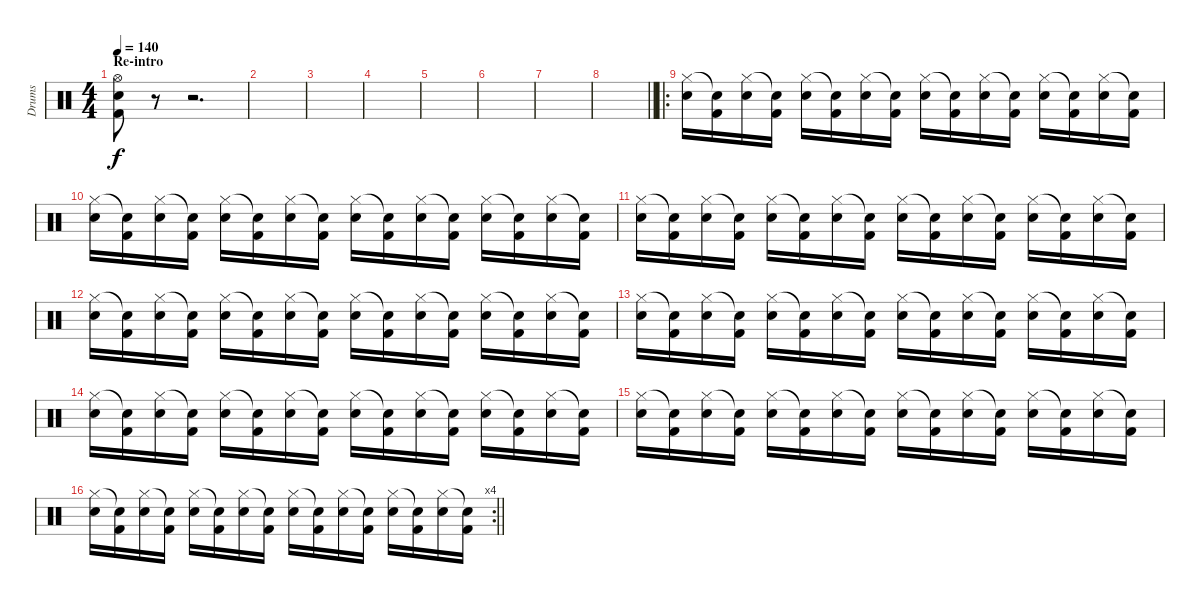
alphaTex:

\track ("Drums" "Drums") {instrument percussion}
\staff {score}
\articulation defaults
\ts (4 4)
\section ("" "Re-intro")
\tempo 140
\clef neutral
\ks c
("Hi-Hat (open)" "Snare (hit) 2" "Kick (hit) 2").8{dy f} r.8 r.2{d} |
|
|
|
|
|
|
\barLineRight lightlight
|
\ro
("Snare (hit) 2" "Hi-Hat (closed)").16 ("Kick (hit) 2" "Snare (hit)"{t}).16 ("Snare (hit) 2" "Hi-Hat (closed)").16 ("Kick (hit) 2" "Snare (hit)"{t}).16 ("Snare (hit) 2" "Hi-Hat (closed)").16 ("Kick (hit) 2" "Snare (hit)"{t}).16 ("Snare (hit) 2" "Hi-Hat (closed)").16 ("Kick (hit) 2" "Snare (hit)"{t}).16 ("Snare (hit) 2" "Hi-Hat (closed)").16 ("Kick (hit) 2" "Snare (hit)"{t}).16 ("Snare (hit) 2" "Hi-Hat (closed)").16 ("Kick (hit) 2" "Snare (hit)"{t}).16 ("Snare (hit) 2" "Hi-Hat (closed)").16 ("Kick (hit) 2" "Snare (hit)"{t}).16 ("Snare (hit) 2" "Hi-Hat (closed)").16 ("Kick (hit) 2" "Snare (hit)"{t}).16 |
("Snare (hit) 2" "Hi-Hat (closed)").16 ("Kick (hit) 2" "Snare (hit)"{t}).16 ("Snare (hit) 2" "Hi-Hat (closed)").16 ("Kick (hit) 2" "Snare (hit)"{t}).16 ("Snare (hit) 2" "Hi-Hat (closed)").16 ("Kick (hit) 2" "Snare (hit)"{t}).16 ("Snare (hit) 2" "Hi-Hat (closed)").16 ("Kick (hit) 2" "Snare (hit)"{t}).16 ("Snare (hit) 2" "Hi-Hat (closed)").16 ("Kick (hit) 2" "Snare (hit)"{t}).16 ("Snare (hit) 2" "Hi-Hat (closed)").16 ("Kick (hit) 2" "Snare (hit)"{t}).16 ("Snare (hit) 2" "Hi-Hat (closed)").16 ("Kick (hit) 2" "Snare (hit)"{t}).16 ("Snare (hit) 2" "Hi-Hat (closed)").16 ("Kick (hit) 2" "Snare (hit)"{t}).16 |
("Snare (hit) 2" "Hi-Hat (closed)").16 ("Kick (hit) 2" "Snare (hit)"{t}).16 ("Snare (hit) 2" "Hi-Hat (closed)").16 ("Kick (hit) 2" "Snare (hit)"{t}).16 ("Snare (hit) 2" "Hi-Hat (closed)").16 ("Kick (hit) 2" "Snare (hit)"{t}).16 ("Snare (hit) 2" "Hi-Hat (closed)").16 ("Kick (hit) 2" "Snare (hit)"{t}).16 ("Snare (hit) 2" "Hi-Hat (closed)").16 ("Kick (hit) 2" "Snare (hit)"{t}).16 ("Snare (hit) 2" "Hi-Hat (closed)").16 ("Kick (hit) 2" "Snare (hit)"{t}).16 ("Snare (hit) 2" "Hi-Hat (closed)").16 ("Kick (hit) 2" "Snare (hit)"{t}).16 ("Snare (hit) 2" "Hi-Hat (closed)").16 ("Kick (hit) 2" "Snare (hit)"{t}).16 |
("Snare (hit) 2" "Hi-Hat (closed)").16 ("Kick (hit) 2" "Snare (hit)"{t}).16 ("Snare (hit) 2" "Hi-Hat (closed)").16 ("Kick (hit) 2" "Snare (hit)"{t}).16 ("Snare (hit) 2" "Hi-Hat (closed)").16 ("Kick (hit) 2" "Snare (hit)"{t}).16 ("Snare (hit) 2" "Hi-Hat (closed)").16 ("Kick (hit) 2" "Snare (hit)"{t}).16 ("Snare (hit) 2" "Hi-Hat (closed)").16 ("Kick (hit) 2" "Snare (hit)"{t}).16 ("Snare (hit) 2" "Hi-Hat (closed)").16 ("Kick (hit) 2" "Snare (hit)"{t}).16 ("Snare (hit) 2" "Hi-Hat (closed)").16 ("Kick (hit) 2" "Snare (hit)"{t}).16 ("Snare (hit) 2" "Hi-Hat (closed)").16 ("Kick (hit) 2" "Snare (hit)"{t}).16 |
("Snare (hit) 2" "Hi-Hat (closed)").16 ("Kick (hit) 2" "Snare (hit)"{t}).16 ("Snare (hit) 2" "Hi-Hat (closed)").16 ("Kick (hit) 2" "Snare (hit)"{t}).16 ("Snare (hit) 2" "Hi-Hat (closed)").16 ("Kick (hit) 2" "Snare (hit)"{t}).16 ("Snare (hit) 2" "Hi-Hat (closed)").16 ("Kick (hit) 2" "Snare (hit)"{t}).16 ("Snare (hit) 2" "Hi-Hat (closed)").16 ("Kick (hit) 2" "Snare (hit)"{t}).16 ("Snare (hit) 2" "Hi-Hat (closed)").16 ("Kick (hit) 2" "Snare (hit)"{t}).16 ("Snare (hit) 2" "Hi-Hat (closed)").16 ("Kick (hit) 2" "Snare (hit)"{t}).16 ("Snare (hit) 2" "Hi-Hat (closed)").16 ("Kick (hit) 2" "Snare (hit)"{t}).16 |
("Snare (hit) 2" "Hi-Hat (closed)").16 ("Kick (hit) 2" "Snare (hit)"{t}).16 ("Snare (hit) 2" "Hi-Hat (closed)").16 ("Kick (hit) 2" "Snare (hit)"{t}).16 ("Snare (hit) 2" "Hi-Hat (closed)").16 ("Kick (hit) 2" "Snare (hit)"{t}).16 ("Snare (hit) 2" "Hi-Hat (closed)").16 ("Kick (hit) 2" "Snare (hit)"{t}).16 ("Snare (hit) 2" "Hi-Hat (closed)").16 ("Kick (hit) 2" "Snare (hit)"{t}).16 ("Snare (hit) 2" "Hi-Hat (closed)").16 ("Kick (hit) 2" "Snare (hit)"{t}).16 ("Snare (hit) 2" "Hi-Hat (closed)").16 ("Kick (hit) 2" "Snare (hit)"{t}).16 ("Snare (hit) 2" "Hi-Hat (closed)").16 ("Kick (hit) 2" "Snare (hit)"{t}).16 |
("Snare (hit) 2" "Hi-Hat (closed)").16 ("Kick (hit) 2" "Snare (hit)"{t}).16 ("Snare (hit) 2" "Hi-Hat (closed)").16 ("Kick (hit) 2" "Snare (hit)"{t}).16 ("Snare (hit) 2" "Hi-Hat (closed)").16 ("Kick (hit) 2" "Snare (hit)"{t}).16 ("Snare (hit) 2" "Hi-Hat (closed)").16 ("Kick (hit) 2" "Snare (hit)"{t}).16 ("Snare (hit) 2" "Hi-Hat (closed)").16 ("Kick (hit) 2" "Snare (hit)"{t}).16 ("Snare (hit) 2" "Hi-Hat (closed)").16 ("Kick (hit) 2" "Snare (hit)"{t}).16 ("Snare (hit) 2" "Hi-Hat (closed)").16 ("Kick (hit) 2" "Snare (hit)"{t}).16 ("Snare (hit) 2" "Hi-Hat (closed)").16 ("Kick (hit) 2" "Snare (hit)"{t}).16 |
\rc 4
\barLineRight lightlight
("Snare (hit) 2" "Hi-Hat (closed)").16 ("Kick (hit) 2" "Snare (hit)"{t}).16 ("Snare (hit) 2" "Hi-Hat (closed)").16 ("Kick (hit) 2" "Snare (hit)"{t}).16 ("Snare (hit) 2" "Hi-Hat (closed)").16 ("Kick (hit) 2" "Snare (hit)"{t}).16 ("Snare (hit) 2" "Hi-Hat (closed)").16 ("Kick (hit) 2" "Snare (hit)"{t}).16 ("Snare (hit) 2" "Hi-Hat (closed)").16 ("Kick (hit) 2" "Snare (hit)"{t}).16 ("Snare (hit) 2" "Hi-Hat (closed)").16 ("Kick (hit) 2" "Snare (hit)"{t}).16 ("Snare (hit) 2" "Hi-Hat (closed)").16 ("Kick (hit) 2" "Snare (hit)"{t}).16 ("Snare (hit) 2" "Hi-Hat (closed)").16 ("Kick (hit) 2" "Snare (hit)"{t}).16
